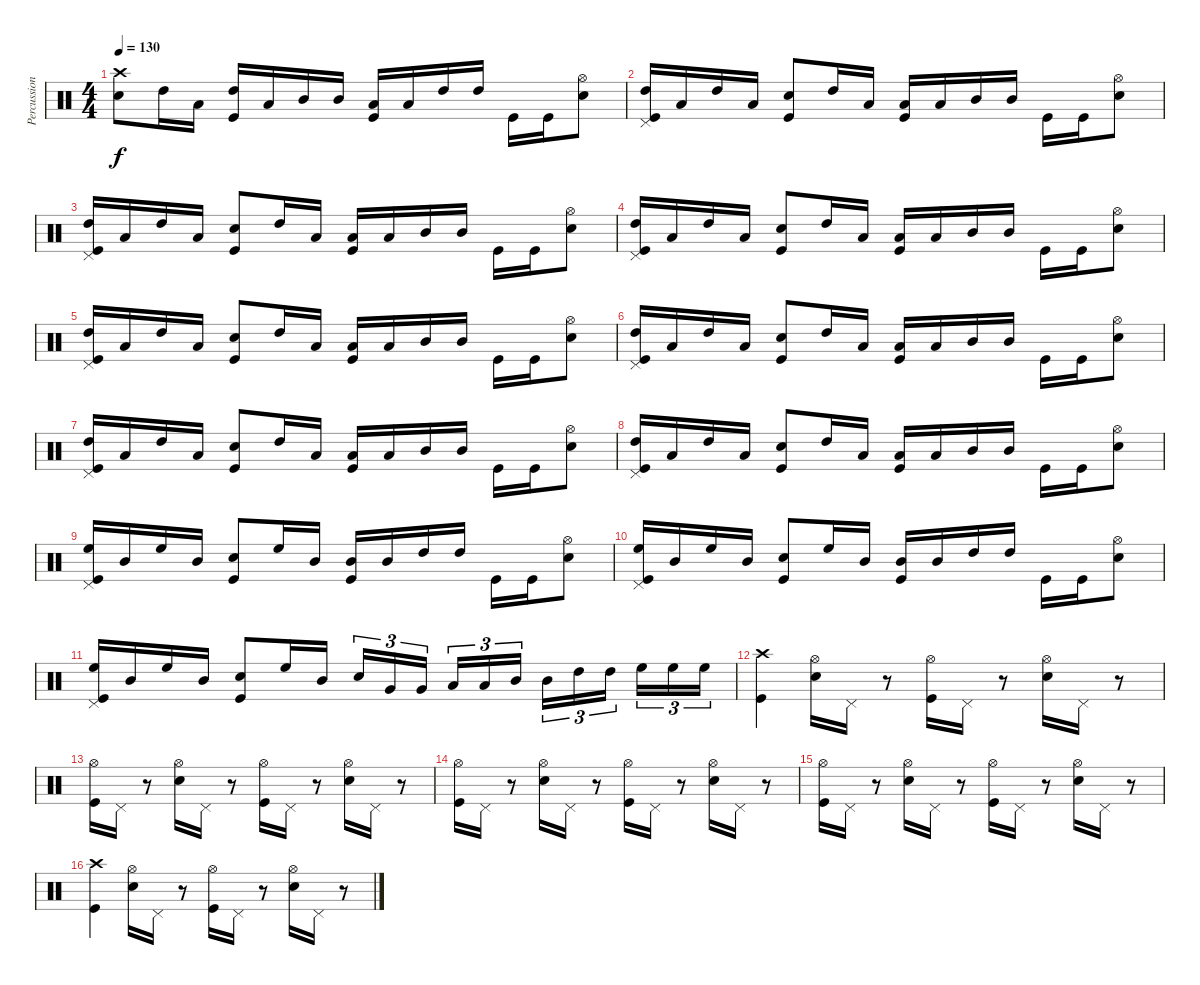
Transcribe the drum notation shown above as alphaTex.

\track ("Percussion" "Percussion") {instrument percussion}
\staff {score}
\articulation defaults
\ts (4 4)
\tempo 130
\clef neutral
\ks c
("Snare (hit) 2" "Crash high (hit)").8{dy f} "High Tom (hit)".16 "Low Tom (hit)".16 ("High Tom (hit)" "Kick (hit)").16 "Low Tom (hit)".16 "Mid Tom (hit)".16 "Mid Tom (hit)".16 ("Kick (hit)" "Low Tom (hit)").16 "Low Tom (hit)".16 "High Tom (hit)".16 "High Tom (hit)".16 "Kick (hit)".16 "Kick (hit)".16 ("Snare (hit) 2" "Hi-Hat (open)").8 |
("High Tom (hit)" "Kick (hit)" "Pedal Hi-Hat (hit)").16 "Low Tom (hit)".16 "High Tom (hit)".16 "Low Tom (hit)".16 ("Kick (hit)" "Snare (hit) 2").8 "High Tom (hit)".16 "Low Tom (hit)".16 ("Low Tom (hit)" "Kick (hit)").16 "Low Tom (hit)".16 "Mid Tom (hit)".16 "Mid Tom (hit)".16 "Kick (hit)".16 "Kick (hit)".16 ("Snare (hit) 2" "Hi-Hat (open)").8 |
("High Tom (hit)" "Kick (hit)" "Pedal Hi-Hat (hit)").16 "Low Tom (hit)".16 "High Tom (hit)".16 "Low Tom (hit)".16 ("Kick (hit)" "Snare (hit) 2").8 "High Tom (hit)".16 "Low Tom (hit)".16 ("Low Tom (hit)" "Kick (hit)").16 "Low Tom (hit)".16 "Mid Tom (hit)".16 "Mid Tom (hit)".16 "Kick (hit)".16 "Kick (hit)".16 ("Snare (hit) 2" "Hi-Hat (open)").8 |
("High Tom (hit)" "Kick (hit)" "Pedal Hi-Hat (hit)").16 "Low Tom (hit)".16 "High Tom (hit)".16 "Low Tom (hit)".16 ("Kick (hit)" "Snare (hit) 2").8 "High Tom (hit)".16 "Low Tom (hit)".16 ("Low Tom (hit)" "Kick (hit)").16 "Low Tom (hit)".16 "Mid Tom (hit)".16 "Mid Tom (hit)".16 "Kick (hit)".16 "Kick (hit)".16 ("Snare (hit) 2" "Hi-Hat (open)").8 |
("High Tom (hit)" "Kick (hit)" "Pedal Hi-Hat (hit)").16 "Low Tom (hit)".16 "High Tom (hit)".16 "Low Tom (hit)".16 ("Kick (hit)" "Snare (hit) 2").8 "High Tom (hit)".16 "Low Tom (hit)".16 ("Low Tom (hit)" "Kick (hit)").16 "Low Tom (hit)".16 "Mid Tom (hit)".16 "Mid Tom (hit)".16 "Kick (hit)".16 "Kick (hit)".16 ("Snare (hit) 2" "Hi-Hat (open)").8 |
("High Tom (hit)" "Kick (hit)" "Pedal Hi-Hat (hit)").16 "Low Tom (hit)".16 "High Tom (hit)".16 "Low Tom (hit)".16 ("Kick (hit)" "Snare (hit) 2").8 "High Tom (hit)".16 "Low Tom (hit)".16 ("Low Tom (hit)" "Kick (hit)").16 "Low Tom (hit)".16 "Mid Tom (hit)".16 "Mid Tom (hit)".16 "Kick (hit)".16 "Kick (hit)".16 ("Snare (hit) 2" "Hi-Hat (open)").8 |
("High Tom (hit)" "Kick (hit)" "Pedal Hi-Hat (hit)").16 "Low Tom (hit)".16 "High Tom (hit)".16 "Low Tom (hit)".16 ("Kick (hit)" "Snare (hit) 2").8 "High Tom (hit)".16 "Low Tom (hit)".16 ("Low Tom (hit)" "Kick (hit)").16 "Low Tom (hit)".16 "Mid Tom (hit)".16 "Mid Tom (hit)".16 "Kick (hit)".16 "Kick (hit)".16 ("Snare (hit) 2" "Hi-Hat (open)").8 |
("High Tom (hit)" "Kick (hit)" "Pedal Hi-Hat (hit)").16 "Low Tom (hit)".16 "High Tom (hit)".16 "Low Tom (hit)".16 ("Kick (hit)" "Snare (hit) 2").8 "High Tom (hit)".16 "Low Tom (hit)".16 ("Low Tom (hit)" "Kick (hit)").16 "Low Tom (hit)".16 "Mid Tom (hit)".16 "Mid Tom (hit)".16 "Kick (hit)".16 "Kick (hit)".16 ("Snare (hit) 2" "Hi-Hat (open)").8 |
("High Floor Tom (hit)" "Kick (hit)" "Pedal Hi-Hat (hit)").16 "Mid Tom (hit)".16 "High Floor Tom (hit)".16 "Mid Tom (hit)".16 ("Kick (hit)" "Snare (hit) 2").8 "High Floor Tom (hit)".16 "Mid Tom (hit)".16 ("Mid Tom (hit)" "Kick (hit)").16 "Mid Tom (hit)".16 "High Tom (hit)".16 "High Tom (hit)".16 "Kick (hit)".16 "Kick (hit)".16 ("Snare (hit) 2" "Hi-Hat (open)").8 |
("High Floor Tom (hit)" "Kick (hit)" "Pedal Hi-Hat (hit)").16 "Mid Tom (hit)".16 "High Floor Tom (hit)".16 "Mid Tom (hit)".16 ("Kick (hit)" "Snare (hit) 2").8 "High Floor Tom (hit)".16 "Mid Tom (hit)".16 ("Mid Tom (hit)" "Kick (hit)").16 "Mid Tom (hit)".16 "High Tom (hit)".16 "High Tom (hit)".16 "Kick (hit)".16 "Kick (hit)".16 ("Snare (hit) 2" "Hi-Hat (open)").8 |
("High Floor Tom (hit)" "Kick (hit)" "Pedal Hi-Hat (hit)").16 "Mid Tom (hit)".16 "High Floor Tom (hit)".16 "Mid Tom (hit)".16 ("Kick (hit)" "Snare (hit) 2").8 "High Floor Tom (hit)".16 "Mid Tom (hit)".16 "Snare (hit) 2".16{tu (3 2)} "Very Low Tom (hit)".16{tu (3 2)} "Very Low Tom (hit)".16{tu (3 2)} "Low Tom (hit)".16{tu (3 2)} "Low Tom (hit)".16{tu (3 2)} "Mid Tom (hit)".16{tu (3 2)} "Mid Tom (hit)".16{tu (3 2)} "High Tom (hit)".16{tu (3 2)} "High Tom (hit)".16{tu (3 2)} "High Floor Tom (hit)".16{tu (3 2)} "High Floor Tom (hit)".16{tu (3 2)} "High Floor Tom (hit)".16{tu (3 2)} |
("Crash high (hit)" "Kick (hit)").4 ("Hi-Hat (open)" "Snare (hit) 2").16 "Pedal Hi-Hat (hit)".16 r.8 ("Hi-Hat (open)" "Kick (hit)").16 "Pedal Hi-Hat (hit)".16 r.8 ("Hi-Hat (open)" "Snare (hit) 2").16 "Pedal Hi-Hat (hit)".16 r.8 |
("Hi-Hat (open)" "Kick (hit)").16 "Pedal Hi-Hat (hit)".16 r.8 ("Hi-Hat (open)" "Snare (hit) 2").16 "Pedal Hi-Hat (hit)".16 r.8 ("Hi-Hat (open)" "Kick (hit)").16 "Pedal Hi-Hat (hit)".16 r.8 ("Hi-Hat (open)" "Snare (hit) 2").16 "Pedal Hi-Hat (hit)".16 r.8 |
("Hi-Hat (open)" "Kick (hit)").16 "Pedal Hi-Hat (hit)".16 r.8 ("Hi-Hat (open)" "Snare (hit) 2").16 "Pedal Hi-Hat (hit)".16 r.8 ("Hi-Hat (open)" "Kick (hit)").16 "Pedal Hi-Hat (hit)".16 r.8 ("Hi-Hat (open)" "Snare (hit) 2").16 "Pedal Hi-Hat (hit)".16 r.8 |
("Hi-Hat (open)" "Kick (hit)").16 "Pedal Hi-Hat (hit)".16 r.8 ("Hi-Hat (open)" "Snare (hit) 2").16 "Pedal Hi-Hat (hit)".16 r.8 ("Hi-Hat (open)" "Kick (hit)").16 "Pedal Hi-Hat (hit)".16 r.8 ("Hi-Hat (open)" "Snare (hit) 2").16 "Pedal Hi-Hat (hit)".16 r.8 |
("Crash high (hit)" "Kick (hit)").4 ("Hi-Hat (open)" "Snare (hit) 2").16 "Pedal Hi-Hat (hit)".16 r.8 ("Hi-Hat (open)" "Kick (hit)").16 "Pedal Hi-Hat (hit)".16 r.8 ("Hi-Hat (open)" "Snare (hit) 2").16 "Pedal Hi-Hat (hit)".16 r.8
